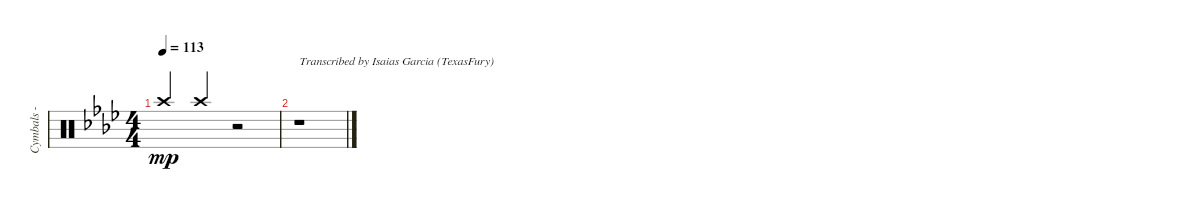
\track ("Cymbals - crash" "Cymbals - ") {instrument percussion}
\staff {score}
\articulation defaults
\ts (4 4)
\tempo 113
\clef neutral
\ks fminor "Crash high (hit)".4{dy mp beam Up} "Crash high (hit)".4{beam Up}
r.2{volume 0} |
r.1{txt "Transcribed by Isaias Garcia (TexasFury)"}
